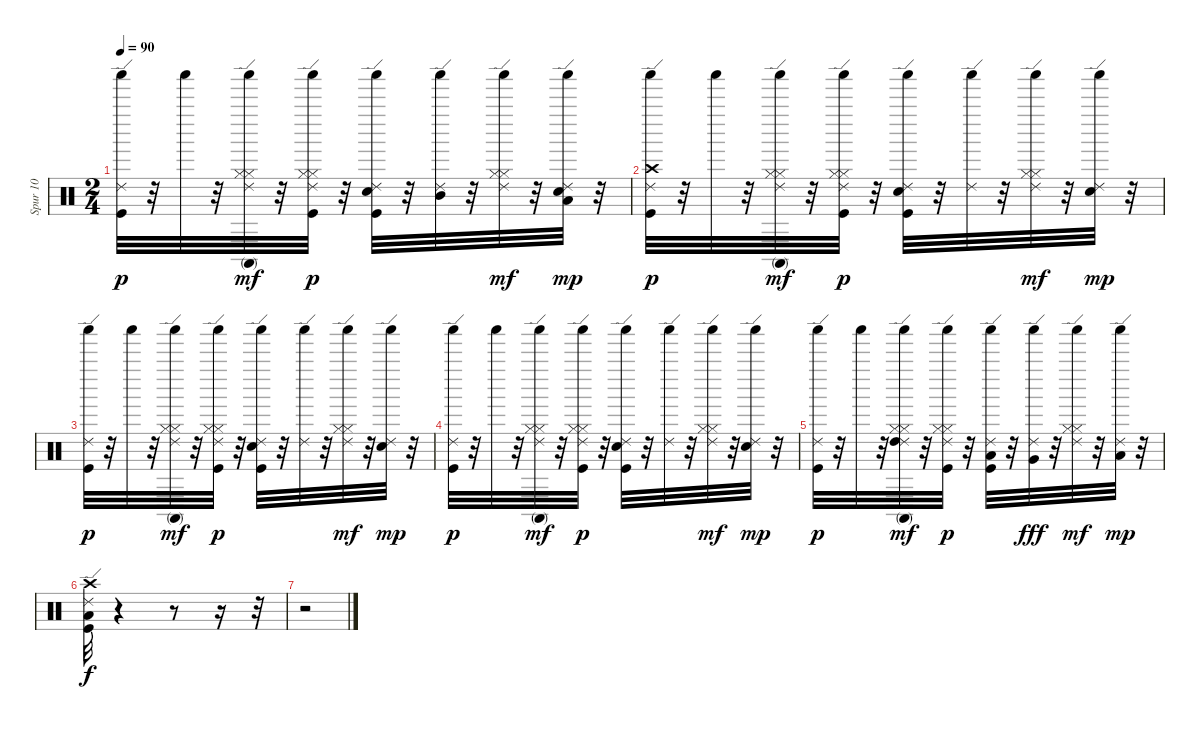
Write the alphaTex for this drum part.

\track ("Spur 10" "Spur 10") {instrument percussion}
\staff {score}
\articulation defaults
\ts (2 4)
\tempo 90
\clef neutral
\ks c
("Ride (edge) 2" "Shaker (hit)" "Kick (hit)").32{dy p} r.32 "Shaker (hit)".32 r.32 ("Ride (edge) 2" "Shaker (hit)" "Conga high (mute)" "Hi-Hat (closed)" "Hi-Hat (closed)").32{dy mf} r.32 ("Ride (edge) 2" "Kick (hit)" "Hi-Hat (closed)" "Shaker (hit)" "Hi-Hat (closed)").32{dy p} r.32 ("Ride (edge) 2" "Shaker (hit)" "Snare (hit) 2" "Kick (hit)").32 r.32 ("Ride (edge) 2" "Mid Tom (hit)" "Shaker (hit)").32 r.32 ("Ride (edge) 2" "Hi-Hat (closed)" "Shaker (hit)" "Hi-Hat (closed)").32{dy mf} r.32 ("Ride (edge) 2" "Low Tom (hit)" "Shaker (hit)" "Electric Snare (hit)").32{dy mp} r.32 |
("Shaker (hit)" "Ride (edge) 2" "Kick (hit)" "Crash high (hit)").32{dy p} r.32 "Shaker (hit)".32 r.32 ("Shaker (hit)" "Hi-Hat (closed)" "Conga high (mute)" "Ride (edge) 2" "Hi-Hat (closed)").32{dy mf} r.32 ("Kick (hit)" "Shaker (hit)" "Hi-Hat (closed)" "Ride (edge) 2" "Hi-Hat (closed)").32{dy p} r.32 ("Snare (hit) 2" "Shaker (hit)" "Ride (edge) 2" "Kick (hit)").32 r.32 ("Shaker (hit)" "Ride (edge) 2").32 r.32 ("Hi-Hat (closed)" "Shaker (hit)" "Ride (edge) 2" "Hi-Hat (closed)").32{dy mf} r.32 ("Electric Snare (hit)" "Shaker (hit)" "Ride (edge) 2").32{dy mp} r.32 |
("Shaker (hit)" "Ride (edge) 2" "Kick (hit)").32{dy p} r.32 "Shaker (hit)".32 r.32 ("Conga high (mute)" "Shaker (hit)" "Hi-Hat (closed)" "Ride (edge) 2" "Hi-Hat (closed)").32{dy mf} r.32 ("Kick (hit)" "Hi-Hat (closed)" "Shaker (hit)" "Ride (edge) 2" "Hi-Hat (closed)").32{dy p} r.32 ("Snare (hit) 2" "Shaker (hit)" "Ride (edge) 2" "Kick (hit)").32 r.32 ("Shaker (hit)" "Ride (edge) 2").32 r.32 ("Shaker (hit)" "Hi-Hat (closed)" "Ride (edge) 2" "Hi-Hat (closed)").32{dy mf} r.32 ("Electric Snare (hit)" "Shaker (hit)" "Ride (edge) 2").32{dy mp} r.32 |
("Shaker (hit)" "Ride (edge) 2" "Kick (hit)").32{dy p} r.32 "Shaker (hit)".32 r.32 ("Shaker (hit)" "Conga high (mute)" "Hi-Hat (closed)" "Ride (edge) 2" "Hi-Hat (closed)").32{dy mf} r.32 ("Kick (hit)" "Hi-Hat (closed)" "Shaker (hit)" "Ride (edge) 2" "Hi-Hat (closed)").32{dy p} r.32 ("Shaker (hit)" "Snare (hit) 2" "Ride (edge) 2" "Kick (hit)").32 r.32 ("Shaker (hit)" "Ride (edge) 2").32 r.32 ("Hi-Hat (closed)" "Shaker (hit)" "Ride (edge) 2" "Hi-Hat (closed)").32{dy mf} r.32 ("Shaker (hit)" "Electric Snare (hit)" "Ride (edge) 2").32{dy mp} r.32 |
("Shaker (hit)" "Ride (edge) 2" "Kick (hit)").32{dy p} r.32 "Shaker (hit)".32 r.32 ("Shaker (hit)" "Hi-Hat (closed)" "Conga high (mute)" "Ride (edge) 2" "High Tom (hit)" "Hi-Hat (closed)").32{dy mf} r.32 ("Kick (hit)" "Hi-Hat (closed)" "Shaker (hit)" "Ride (edge) 2" "Hi-Hat (closed)").32{dy p} r.32 ("Shaker (hit)" "Ride (edge) 2" "Kick (hit)" "Low Tom (hit)").32 r.32 ("Shaker (hit)" "Ride (edge) 2" "Very Low Tom (hit)").32{dy fff} r.32 ("Shaker (hit)" "Hi-Hat (closed)" "Ride (edge) 2" "Hi-Hat (closed)").32{dy mf} r.32 ("Low Floor Tom (hit)" "Shaker (hit)" "Ride (edge) 2").32{dy mp} r.32 |
("Ride (edge) 2" "Low Floor Tom (hit)" "Kick (hit)" "Crash high (hit)").32{dy f} r.4 r.8 r.16 r.32 |
r.2
